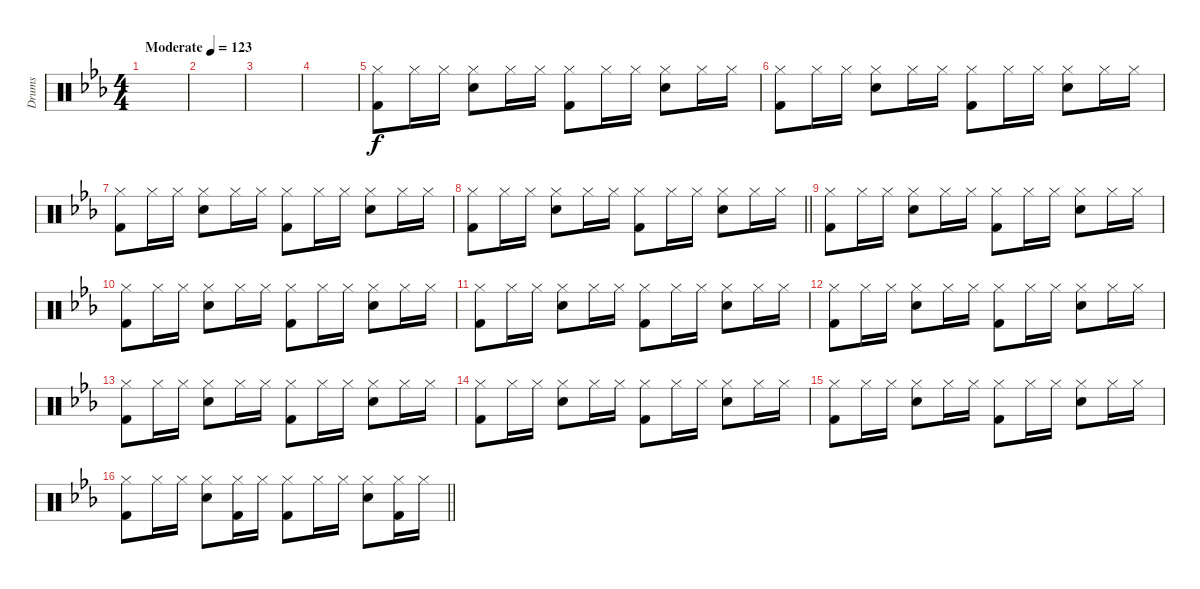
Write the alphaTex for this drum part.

\track ("Drums" "Drums") {instrument percussion}
\staff {score}
\articulation defaults
\ts (4 4)
\tempo (123 "Moderate")
\clef neutral
\ks eb
|
|
|
|
("Hi-Hat (closed)" "Kick (hit) 2").8 "Hi-Hat (closed)".16 "Hi-Hat (closed)".16 ("Hi-Hat (closed)" "Electric Snare (hit)").8 "Hi-Hat (closed)".16 "Hi-Hat (closed)".16 ("Hi-Hat (closed)" "Kick (hit) 2").8 "Hi-Hat (closed)".16 "Hi-Hat (closed)".16 ("Hi-Hat (closed)" "Electric Snare (hit)").8 "Hi-Hat (closed)".16 "Hi-Hat (closed)".16 |
("Hi-Hat (closed)" "Kick (hit) 2").8 "Hi-Hat (closed)".16 "Hi-Hat (closed)".16 ("Hi-Hat (closed)" "Electric Snare (hit)").8 "Hi-Hat (closed)".16 "Hi-Hat (closed)".16 ("Hi-Hat (closed)" "Kick (hit) 2").8 "Hi-Hat (closed)".16 "Hi-Hat (closed)".16 ("Hi-Hat (closed)" "Electric Snare (hit)").8 "Hi-Hat (closed)".16 "Hi-Hat (closed)".16 |
("Hi-Hat (closed)" "Kick (hit) 2").8 "Hi-Hat (closed)".16 "Hi-Hat (closed)".16 ("Hi-Hat (closed)" "Electric Snare (hit)").8 "Hi-Hat (closed)".16 "Hi-Hat (closed)".16 ("Hi-Hat (closed)" "Kick (hit) 2").8 "Hi-Hat (closed)".16 "Hi-Hat (closed)".16 ("Hi-Hat (closed)" "Electric Snare (hit)").8 "Hi-Hat (closed)".16 "Hi-Hat (closed)".16 |
\barLineRight lightlight
("Hi-Hat (closed)" "Kick (hit) 2").8 "Hi-Hat (closed)".16 "Hi-Hat (closed)".16 ("Hi-Hat (closed)" "Electric Snare (hit)").8 "Hi-Hat (closed)".16 "Hi-Hat (closed)".16 ("Hi-Hat (closed)" "Kick (hit) 2").8 "Hi-Hat (closed)".16 "Hi-Hat (closed)".16 ("Hi-Hat (closed)" "Electric Snare (hit)").8 "Hi-Hat (closed)".16 "Hi-Hat (closed)".16 |
\section ("" "")
("Hi-Hat (closed)" "Kick (hit) 2").8 "Hi-Hat (closed)".16 "Hi-Hat (closed)".16 ("Hi-Hat (closed)" "Electric Snare (hit)").8 "Hi-Hat (closed)".16 "Hi-Hat (closed)".16 ("Hi-Hat (closed)" "Kick (hit) 2").8 "Hi-Hat (closed)".16 "Hi-Hat (closed)".16 ("Hi-Hat (closed)" "Electric Snare (hit)").8 "Hi-Hat (closed)".16 "Hi-Hat (closed)".16 |
("Hi-Hat (closed)" "Kick (hit) 2").8 "Hi-Hat (closed)".16 "Hi-Hat (closed)".16 ("Hi-Hat (closed)" "Electric Snare (hit)").8 "Hi-Hat (closed)".16 "Hi-Hat (closed)".16 ("Hi-Hat (closed)" "Kick (hit) 2").8 "Hi-Hat (closed)".16 "Hi-Hat (closed)".16 ("Hi-Hat (closed)" "Electric Snare (hit)").8 "Hi-Hat (closed)".16 "Hi-Hat (closed)".16 |
("Hi-Hat (closed)" "Kick (hit) 2").8 "Hi-Hat (closed)".16 "Hi-Hat (closed)".16 ("Hi-Hat (closed)" "Electric Snare (hit)").8 "Hi-Hat (closed)".16 "Hi-Hat (closed)".16 ("Hi-Hat (closed)" "Kick (hit) 2").8 "Hi-Hat (closed)".16 "Hi-Hat (closed)".16 ("Hi-Hat (closed)" "Electric Snare (hit)").8 "Hi-Hat (closed)".16 "Hi-Hat (closed)".16 |
("Hi-Hat (closed)" "Kick (hit) 2").8 "Hi-Hat (closed)".16 "Hi-Hat (closed)".16 ("Hi-Hat (closed)" "Electric Snare (hit)").8 "Hi-Hat (closed)".16 "Hi-Hat (closed)".16 ("Hi-Hat (closed)" "Kick (hit) 2").8 "Hi-Hat (closed)".16 "Hi-Hat (closed)".16 ("Hi-Hat (closed)" "Electric Snare (hit)").8 "Hi-Hat (closed)".16 "Hi-Hat (closed)".16 |
("Hi-Hat (closed)" "Kick (hit) 2").8 "Hi-Hat (closed)".16 "Hi-Hat (closed)".16 ("Hi-Hat (closed)" "Electric Snare (hit)").8 "Hi-Hat (closed)".16 "Hi-Hat (closed)".16 ("Hi-Hat (closed)" "Kick (hit) 2").8 "Hi-Hat (closed)".16 "Hi-Hat (closed)".16 ("Hi-Hat (closed)" "Electric Snare (hit)").8 "Hi-Hat (closed)".16 "Hi-Hat (closed)".16 |
("Hi-Hat (closed)" "Kick (hit) 2").8 "Hi-Hat (closed)".16 "Hi-Hat (closed)".16 ("Hi-Hat (closed)" "Electric Snare (hit)").8 "Hi-Hat (closed)".16 "Hi-Hat (closed)".16 ("Hi-Hat (closed)" "Kick (hit) 2").8 "Hi-Hat (closed)".16 "Hi-Hat (closed)".16 ("Hi-Hat (closed)" "Electric Snare (hit)").8 "Hi-Hat (closed)".16 "Hi-Hat (closed)".16 |
("Hi-Hat (closed)" "Kick (hit) 2").8 "Hi-Hat (closed)".16 "Hi-Hat (closed)".16 ("Hi-Hat (closed)" "Electric Snare (hit)").8 "Hi-Hat (closed)".16 "Hi-Hat (closed)".16 ("Hi-Hat (closed)" "Kick (hit) 2").8 "Hi-Hat (closed)".16 "Hi-Hat (closed)".16 ("Hi-Hat (closed)" "Electric Snare (hit)").8 "Hi-Hat (closed)".16 "Hi-Hat (closed)".16 |
\barLineRight lightlight
("Hi-Hat (closed)" "Kick (hit) 2").8 "Hi-Hat (closed)".16 "Hi-Hat (closed)".16 ("Hi-Hat (closed)" "Electric Snare (hit)").8 ("Hi-Hat (closed)" "Kick (hit) 2").16 "Hi-Hat (closed)".16 ("Hi-Hat (closed)" "Kick (hit) 2").8 "Hi-Hat (closed)".16 "Hi-Hat (closed)".16 ("Hi-Hat (closed)" "Electric Snare (hit)").8 ("Hi-Hat (closed)" "Kick (hit) 2").16 "Hi-Hat (closed)".16
